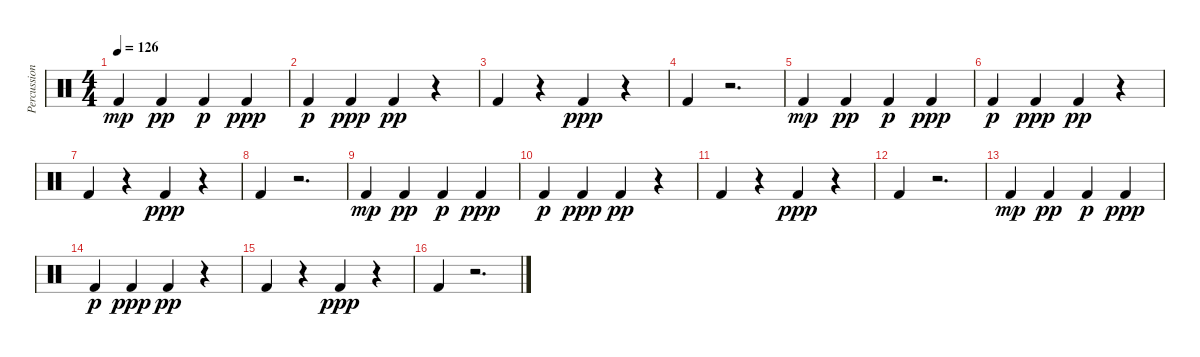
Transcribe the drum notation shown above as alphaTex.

\track ("Percussion" "Percussion") {instrument percussion}
\staff {score}
\articulation defaults
\ts (4 4)
\tempo 126
\clef neutral
\ks c "Kick (hit) 2".4{dy mp} "Kick (hit) 2".4{dy pp} "Kick (hit) 2".4{dy p} "Kick (hit) 2".4{dy ppp}
|
"Kick (hit) 2".4{dy p} "Kick (hit) 2".4{dy ppp} "Kick (hit) 2".4{dy pp} r.4 |
"Kick (hit) 2".4 r.4 "Kick (hit) 2".4{dy ppp} r.4 |
"Kick (hit) 2".4 r.2{d} |
"Kick (hit) 2".4{dy mp} "Kick (hit) 2".4{dy pp} "Kick (hit) 2".4{dy p} "Kick (hit) 2".4{dy ppp} |
"Kick (hit) 2".4{dy p} "Kick (hit) 2".4{dy ppp} "Kick (hit) 2".4{dy pp} r.4 |
"Kick (hit) 2".4 r.4 "Kick (hit) 2".4{dy ppp} r.4 |
"Kick (hit) 2".4 r.2{d} |
"Kick (hit) 2".4{dy mp} "Kick (hit) 2".4{dy pp} "Kick (hit) 2".4{dy p} "Kick (hit) 2".4{dy ppp} |
"Kick (hit) 2".4{dy p} "Kick (hit) 2".4{dy ppp} "Kick (hit) 2".4{dy pp} r.4 |
"Kick (hit) 2".4 r.4 "Kick (hit) 2".4{dy ppp} r.4 |
"Kick (hit) 2".4 r.2{d} |
"Kick (hit) 2".4{dy mp} "Kick (hit) 2".4{dy pp} "Kick (hit) 2".4{dy p} "Kick (hit) 2".4{dy ppp} |
"Kick (hit) 2".4{dy p} "Kick (hit) 2".4{dy ppp} "Kick (hit) 2".4{dy pp} r.4 |
"Kick (hit) 2".4 r.4 "Kick (hit) 2".4{dy ppp} r.4 |
"Kick (hit) 2".4 r.2{d}
